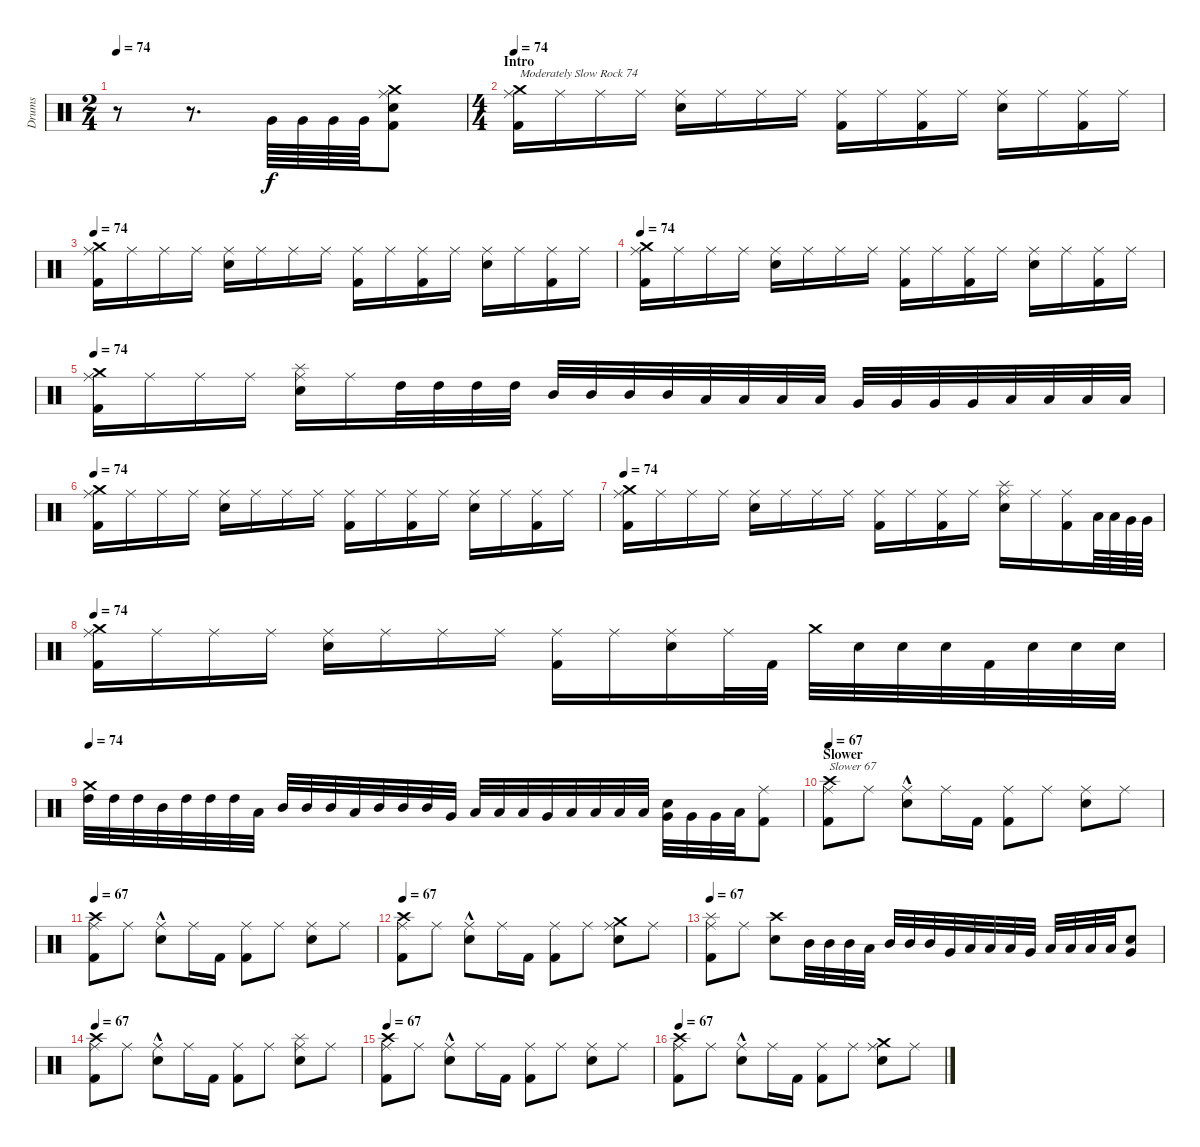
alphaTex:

\track ("Drums" "Drums") {instrument percussion}
\staff {score}
\articulation defaults
\ts (2 4)
\tempo 74
\clef neutral
\ks c
r.8{dy f} r.8{d} "Very Low Tom (hit)".64 "Very Low Tom (hit)".64 "Very Low Tom (hit)".64 "Very Low Tom (hit)".64 ("Ride (middle)" "Kick (hit) 2" "Crash medium (hit)" "Electric Snare (hit)").8 |
\ts (4 4)
\section ("" "Intro")
\tempo 74
("Ride (middle)" "Kick (hit) 2" "Crash medium (hit)").16{txt "Moderately Slow Rock 74"} "Ride (middle)".16 "Ride (middle)".16 "Ride (middle)".16 ("Ride (middle)" "Electric Snare (hit)").16 "Ride (middle)".16 "Ride (middle)".16 "Ride (middle)".16 ("Ride (middle)" "Kick (hit) 2").16 "Ride (middle)".16 ("Ride (middle)" "Kick (hit) 2").16 "Ride (middle)".16 ("Ride (middle)" "Electric Snare (hit)").16 "Ride (middle)".16 ("Ride (middle)" "Kick (hit) 2").16 "Ride (middle)".16 |
\tempo 74
("Kick (hit) 2" "Ride (middle)" "Crash medium (hit)").16 "Ride (middle)".16 "Ride (middle)".16 "Ride (middle)".16 ("Ride (middle)" "Electric Snare (hit)").16 "Ride (middle)".16 "Ride (middle)".16 "Ride (middle)".16 ("Ride (middle)" "Kick (hit) 2").16 "Ride (middle)".16 ("Ride (middle)" "Kick (hit) 2").16 "Ride (middle)".16 ("Ride (middle)" "Electric Snare (hit)").16 "Ride (middle)".16 ("Ride (middle)" "Kick (hit) 2").16 "Ride (middle)".16 |
\tempo 74
("Ride (middle)" "Kick (hit) 2" "Crash medium (hit)").16 "Ride (middle)".16 "Ride (middle)".16 "Ride (middle)".16 ("Ride (middle)" "Electric Snare (hit)").16 "Ride (middle)".16 "Ride (middle)".16 "Ride (middle)".16 ("Ride (middle)" "Kick (hit) 2").16 "Ride (middle)".16 ("Ride (middle)" "Kick (hit) 2").16 "Ride (middle)".16 ("Ride (middle)" "Electric Snare (hit)").16 "Ride (middle)".16 ("Ride (middle)" "Kick (hit) 2").16 "Ride (middle)".16 |
\tempo 74
("Ride (middle)" "Kick (hit) 2" "Crash medium (hit)").16 "Ride (middle)".16 "Ride (middle)".16 "Ride (middle)".16 ("Splash (hit)" "Ride (middle)" "Electric Snare (hit)").16 "Ride (middle)".16 "High Tom (hit)".32 "High Tom (hit)".32 "High Tom (hit)".32 "High Tom (hit)".32 "Mid Tom (hit)".32 "Mid Tom (hit)".32 "Mid Tom (hit)".32 "Mid Tom (hit)".32 "Low Tom (hit)".32 "Low Tom (hit)".32 "Low Tom (hit)".32 "Low Tom (hit)".32 "Very Low Tom (hit)".32 "Very Low Tom (hit)".32 "Very Low Tom (hit)".32 "Very Low Tom (hit)".32 "Low Floor Tom (hit)".32 "Low Floor Tom (hit)".32 "Low Floor Tom (hit)".32 "Low Floor Tom (hit)".32 |
\tempo 74
("Crash medium (hit)" "Kick (hit) 2" "Ride (middle)").16 "Ride (middle)".16 "Ride (middle)".16 "Ride (middle)".16 ("Ride (middle)" "Electric Snare (hit)").16 "Ride (middle)".16 "Ride (middle)".16 "Ride (middle)".16 ("Ride (middle)" "Kick (hit) 2").16 "Ride (middle)".16 ("Ride (middle)" "Kick (hit) 2").16 "Ride (middle)".16 ("Ride (middle)" "Electric Snare (hit)").16 "Ride (middle)".16 ("Ride (middle)" "Kick (hit) 2").16 "Ride (middle)".16 |
\tempo 74
("Ride (middle)" "Kick (hit) 2" "Crash medium (hit)").16 "Ride (middle)".16 "Ride (middle)".16 "Ride (middle)".16 ("Ride (middle)" "Electric Snare (hit)").16 "Ride (middle)".16 "Ride (middle)".16 "Ride (middle)".16 ("Ride (middle)" "Kick (hit) 2").16 "Ride (middle)".16 ("Ride (middle)" "Kick (hit) 2").16 "Ride (middle)".16 ("Ride (middle)" "Electric Snare (hit)" "Splash (hit)").16 "Ride (middle)".16 ("Kick (hit) 2" "Ride (middle)").16 "Low Tom (hit)".64 "Low Tom (hit)".64 "Very Low Tom (hit)".64 "Very Low Tom (hit)".64 |
\tempo 74
("Kick (hit) 2" "Ride (middle)" "Crash medium (hit)").16 "Ride (middle)".16 "Ride (middle)".16 "Ride (middle)".16 ("Ride (middle)" "Electric Snare (hit)").16 "Ride (middle)".16 "Ride (middle)".16 "Ride (middle)".16 ("Ride (middle)" "Kick (hit) 2").16 "Ride (middle)".16 ("Ride (middle)" "Electric Snare (hit)").16 "Ride (middle)".32 "Kick (hit) 2".32 "Crash medium (hit)".32 "Electric Snare (hit)".32 "Electric Snare (hit)".32 "Electric Snare (hit)".32 "Kick (hit) 2".32 "Electric Snare (hit)".32 "Electric Snare (hit)".32 "Electric Snare (hit)".32 |
\tempo 74
("Crash medium (hit)" "High Tom (hit)").32 "High Tom (hit)".32 "High Tom (hit)".32 "Mid Tom (hit)".32 "High Tom (hit)".32 "High Tom (hit)".32 "High Tom (hit)".32 "Low Tom (hit)".32 "Mid Tom (hit)".32 "Mid Tom (hit)".32 "Mid Tom (hit)".32 "Low Tom (hit)".32 "Mid Tom (hit)".32 "Mid Tom (hit)".32 "Mid Tom (hit)".32 "Very Low Tom (hit)".32 "Low Tom (hit)".32 "Low Tom (hit)".32 "Low Tom (hit)".32 "Very Low Tom (hit)".32 "Low Tom (hit)".32 "Low Tom (hit)".32 "Low Tom (hit)".32 "Low Floor Tom (hit)".32 ("Electric Snare (hit)" "Very Low Tom (hit)").32 "Very Low Tom (hit)".32 "Very Low Tom (hit)".32 "Low Floor Tom (hit)".32 ("Ride (middle)" "Kick (hit) 2").8 |
\section ("" "Slower")
\tempo 67
("Kick (hit) 2" "Crash high (hit)" "Ride (middle)").8{txt "Slower 67"} "Ride (middle)".8 ("Electric Snare (hit)"{hac} "Ride (middle)").8 "Ride (middle)".16 "Kick (hit) 2".16 ("Kick (hit) 2" "Ride (middle)").8 "Ride (middle)".8 ("Electric Snare (hit)" "Ride (middle)").8 "Ride (middle)".8 |
\tempo 67
("Ride (middle)" "Crash high (hit)" "Kick (hit) 2").8 "Ride (middle)".8 ("Electric Snare (hit)"{hac} "Ride (middle)").8 "Ride (middle)".16 "Kick (hit) 2".16 ("Kick (hit) 2" "Ride (middle)").8 "Ride (middle)".8 ("Electric Snare (hit)" "Ride (middle)").8 "Ride (middle)".8 |
\tempo 67
("Ride (middle)" "Crash high (hit)" "Kick (hit) 2").8 "Ride (middle)".8 ("Electric Snare (hit)"{hac} "Ride (middle)").8 "Ride (middle)".16 "Kick (hit) 2".16 ("Kick (hit) 2" "Ride (middle)").8 "Ride (middle)".8 ("Electric Snare (hit)" "Ride (middle)" "Crash medium (hit)").8 "Ride (middle)".8 |
\tempo 67
("Ride (middle)" "Kick (hit) 2" "Splash (hit)").8 "Ride (middle)".8 ("Electric Snare (hit)" "Crash high (hit)").8 "Mid Tom (hit)".32 "Mid Tom (hit)".32 "Mid Tom (hit)".32 "Low Tom (hit)".32 "Mid Tom (hit)".32 "Mid Tom (hit)".32 "Mid Tom (hit)".32 "Very Low Tom (hit)".32 "Low Tom (hit)".32 "Low Tom (hit)".32 "Low Tom (hit)".32 "Very Low Tom (hit)".32 "Low Tom (hit)".32 "Low Tom (hit)".32 "Low Tom (hit)".32 "Low Floor Tom (hit)".32 ("Electric Snare (hit)" "Very Low Tom (hit)").8 |
\tempo 67
("Kick (hit) 2" "Crash high (hit)" "Ride (middle)").8 "Ride (middle)".8 ("Electric Snare (hit)"{hac} "Ride (middle)").8 "Ride (middle)".16 "Kick (hit) 2".16 ("Kick (hit) 2" "Ride (middle)").8 "Ride (middle)".8 ("Electric Snare (hit)" "Ride (middle)" "Splash (hit)").8 "Ride (middle)".8 |
\tempo 67
("Kick (hit) 2" "Crash high (hit)" "Ride (middle)").8 "Ride (middle)".8 ("Electric Snare (hit)"{hac} "Ride (middle)").8 "Ride (middle)".16 "Kick (hit) 2".16 ("Kick (hit) 2" "Ride (middle)").8 "Ride (middle)".8 ("Electric Snare (hit)" "Ride (middle)").8 "Ride (middle)".8 |
\tempo 67
("Ride (middle)" "Crash high (hit)" "Kick (hit) 2").8 "Ride (middle)".8 ("Electric Snare (hit)"{hac} "Ride (middle)").8 "Ride (middle)".16 "Kick (hit) 2".16 ("Kick (hit) 2" "Ride (middle)").8 "Ride (middle)".8 ("Electric Snare (hit)" "Ride (middle)" "Crash medium (hit)").8 "Ride (middle)".8
